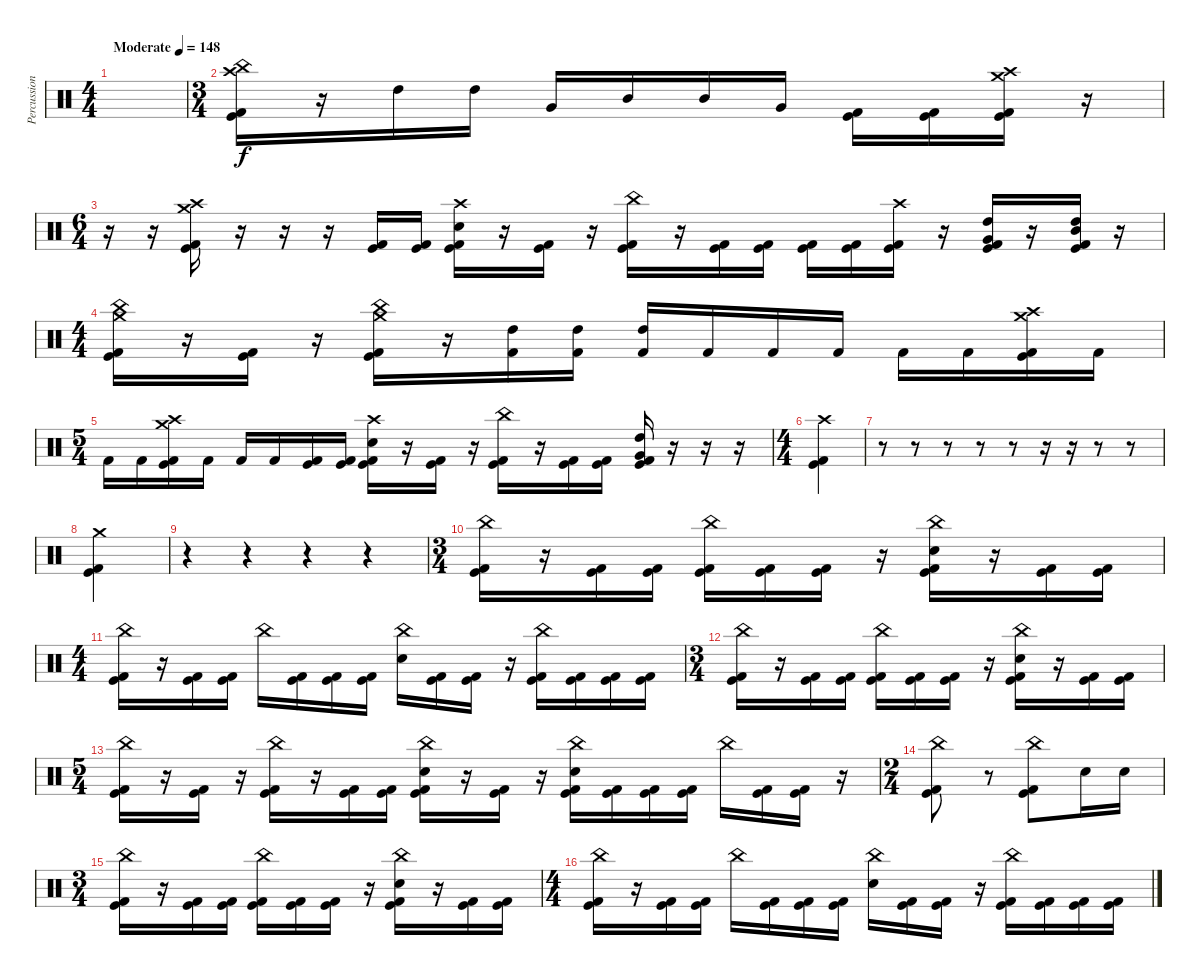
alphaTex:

\track ("Percussioni" "Percussion") {instrument percussion}
\staff {score}
\articulation defaults
\ts (4 4)
\tempo (148 "Moderate")
\clef neutral
\ks c
|
\ts (3 4)
("Crash high (hit)" "China (hit)" "Kick (hit)" "Kick (hit) 2").16 r.16 "High Tom (hit)".16 "High Tom (hit)".16 "Very Low Tom (hit)".16 "Mid Tom (hit)".16 "Mid Tom (hit)".16 "Very Low Tom (hit)".16 ("Kick (hit)" "Kick (hit) 2").16 ("Kick (hit)" "Kick (hit) 2").16 ("Crash medium (hit)" "Crash high (hit)" "Kick (hit)" "Kick (hit) 2").16 r.16 |
\ts (6 4)
r.16 r.16 ("Crash medium (hit)" "Crash high (hit)" "Kick (hit)" "Kick (hit) 2").16 r.16 r.16 r.16 ("Kick (hit)" "Kick (hit) 2").16 ("Kick (hit)" "Kick (hit) 2").16 ("Crash high (hit)" "Snare (hit) 2" "Kick (hit)" "Kick (hit) 2").16 r.16 ("Kick (hit)" "Kick (hit) 2").16 r.16 ("China (hit)" "Kick (hit)" "Kick (hit) 2").16 r.16 ("Kick (hit)" "Kick (hit) 2").16 ("Kick (hit)" "Kick (hit) 2").16 ("Kick (hit)" "Kick (hit) 2").16 ("Kick (hit)" "Kick (hit) 2").16 ("Crash high (hit)" "Kick (hit)" "Kick (hit) 2").16 r.16 ("Very Low Tom (hit)" "High Tom (hit)" "Kick (hit)" "Kick (hit) 2").16 r.16 ("Mid Tom (hit)" "High Tom (hit)" "Kick (hit)" "Kick (hit) 2").16 r.16 |
\ts (4 4)
("Crash medium (hit)" "China (hit)" "Kick (hit)" "Kick (hit) 2").16 r.16 ("Kick (hit)" "Kick (hit) 2").16 r.16 ("Crash medium (hit)" "China (hit)" "Kick (hit)" "Kick (hit) 2").16 r.16 ("High Tom (hit)" "Kick (hit) 2").16 ("High Tom (hit)" "Kick (hit) 2").16 ("High Tom (hit)" "Kick (hit) 2").16 "Kick (hit) 2".16 "Kick (hit) 2".16 "Kick (hit) 2".16 "Kick (hit) 2".16 "Kick (hit) 2".16 ("Crash high (hit)" "Crash medium (hit)" "Kick (hit)" "Kick (hit) 2").16 "Kick (hit) 2".16 |
\ts (5 4)
"Kick (hit) 2".16 "Kick (hit) 2".16 ("Crash medium (hit)" "Crash high (hit)" "Kick (hit)" "Kick (hit) 2").16 "Kick (hit) 2".16 "Kick (hit) 2".16 "Kick (hit) 2".16 ("Kick (hit)" "Kick (hit) 2").16 ("Kick (hit)" "Kick (hit) 2").16 ("Crash high (hit)" "Snare (hit) 2" "Kick (hit)" "Kick (hit) 2").16 r.16 ("Kick (hit)" "Kick (hit) 2").16 r.16 ("China (hit)" "Kick (hit)" "Kick (hit) 2").16 r.16 ("Kick (hit)" "Kick (hit) 2").16 ("Kick (hit)" "Kick (hit) 2").16 ("Very Low Tom (hit)" "High Tom (hit)" "Kick (hit)" "Kick (hit) 2").16 r.16 r.16 r.16 |
\ts (4 4)
("Crash high (hit)" "Kick (hit) 2" "Kick (hit)").4 |
r.8 r.8 r.8 r.8 r.8 r.16 r.16 r.8 r.8 |
("Crash medium (hit)" "Kick (hit)" "Kick (hit) 2").4 |
r.4 r.4 r.4 r.4 |
\ts (3 4)
("China (hit)" "Kick (hit)" "Kick (hit) 2").16 r.16 ("Kick (hit)" "Kick (hit) 2").16 ("Kick (hit)" "Kick (hit) 2").16 ("China (hit)" "Kick (hit)" "Kick (hit) 2").16 ("Kick (hit)" "Kick (hit) 2").16 ("Kick (hit)" "Kick (hit) 2").16 r.16 ("China (hit)" "Snare (hit) 2" "Kick (hit)" "Kick (hit) 2").16 r.16 ("Kick (hit)" "Kick (hit) 2").16 ("Kick (hit)" "Kick (hit) 2").16 |
\ts (4 4)
("China (hit)" "Kick (hit)" "Kick (hit) 2").16 r.16 ("Kick (hit)" "Kick (hit) 2").16 ("Kick (hit)" "Kick (hit) 2").16 "China (hit)".16 ("Kick (hit)" "Kick (hit) 2").16 ("Kick (hit)" "Kick (hit) 2").16 ("Kick (hit)" "Kick (hit) 2").16 ("China (hit)" "Snare (hit) 2").16 ("Kick (hit)" "Kick (hit) 2").16 ("Kick (hit)" "Kick (hit) 2").16 r.16 ("China (hit)" "Kick (hit)" "Kick (hit) 2").16 ("Kick (hit)" "Kick (hit) 2").16 ("Kick (hit)" "Kick (hit) 2").16 ("Kick (hit)" "Kick (hit) 2").16 |
\ts (3 4)
("China (hit)" "Kick (hit)" "Kick (hit) 2").16 r.16 ("Kick (hit)" "Kick (hit) 2").16 ("Kick (hit)" "Kick (hit) 2").16 ("China (hit)" "Kick (hit)" "Kick (hit) 2").16 ("Kick (hit)" "Kick (hit) 2").16 ("Kick (hit)" "Kick (hit) 2").16 r.16 ("China (hit)" "Snare (hit) 2" "Kick (hit)" "Kick (hit) 2").16 r.16 ("Kick (hit)" "Kick (hit) 2").16 ("Kick (hit)" "Kick (hit) 2").16 |
\ts (5 4)
("China (hit)" "Kick (hit)" "Kick (hit) 2").16 r.16 ("Kick (hit)" "Kick (hit) 2").16 r.16 ("China (hit)" "Kick (hit)" "Kick (hit) 2").16 r.16 ("Kick (hit)" "Kick (hit) 2").16 ("Kick (hit)" "Kick (hit) 2").16 ("China (hit)" "Snare (hit) 2" "Kick (hit)" "Kick (hit) 2").16 r.16 ("Kick (hit)" "Kick (hit) 2").16 r.16 ("China (hit)" "Snare (hit) 2" "Kick (hit)" "Kick (hit) 2").16 ("Kick (hit)" "Kick (hit) 2").16 ("Kick (hit)" "Kick (hit) 2").16 ("Kick (hit)" "Kick (hit) 2").16 "China (hit)".16 ("Kick (hit)" "Kick (hit) 2").16 ("Kick (hit)" "Kick (hit) 2").16 r.16 |
\ts (2 4)
("China (hit)" "Kick (hit)" "Kick (hit) 2").8 r.8 ("China (hit)" "Kick (hit)" "Kick (hit) 2").8 "Snare (hit) 2".16 "Snare (hit) 2".16 |
\ts (3 4)
("China (hit)" "Kick (hit)" "Kick (hit) 2").16 r.16 ("Kick (hit)" "Kick (hit) 2").16 ("Kick (hit)" "Kick (hit) 2").16 ("China (hit)" "Kick (hit)" "Kick (hit) 2").16 ("Kick (hit)" "Kick (hit) 2").16 ("Kick (hit)" "Kick (hit) 2").16 r.16 ("China (hit)" "Snare (hit) 2" "Kick (hit)" "Kick (hit) 2").16 r.16 ("Kick (hit)" "Kick (hit) 2").16 ("Kick (hit)" "Kick (hit) 2").16 |
\ts (4 4)
("China (hit)" "Kick (hit)" "Kick (hit) 2").16 r.16 ("Kick (hit)" "Kick (hit) 2").16 ("Kick (hit)" "Kick (hit) 2").16 "China (hit)".16 ("Kick (hit)" "Kick (hit) 2").16 ("Kick (hit)" "Kick (hit) 2").16 ("Kick (hit)" "Kick (hit) 2").16 ("China (hit)" "Snare (hit) 2").16 ("Kick (hit)" "Kick (hit) 2").16 ("Kick (hit)" "Kick (hit) 2").16 r.16 ("China (hit)" "Kick (hit)" "Kick (hit) 2").16 ("Kick (hit)" "Kick (hit) 2").16 ("Kick (hit)" "Kick (hit) 2").16 ("Kick (hit)" "Kick (hit) 2").16
